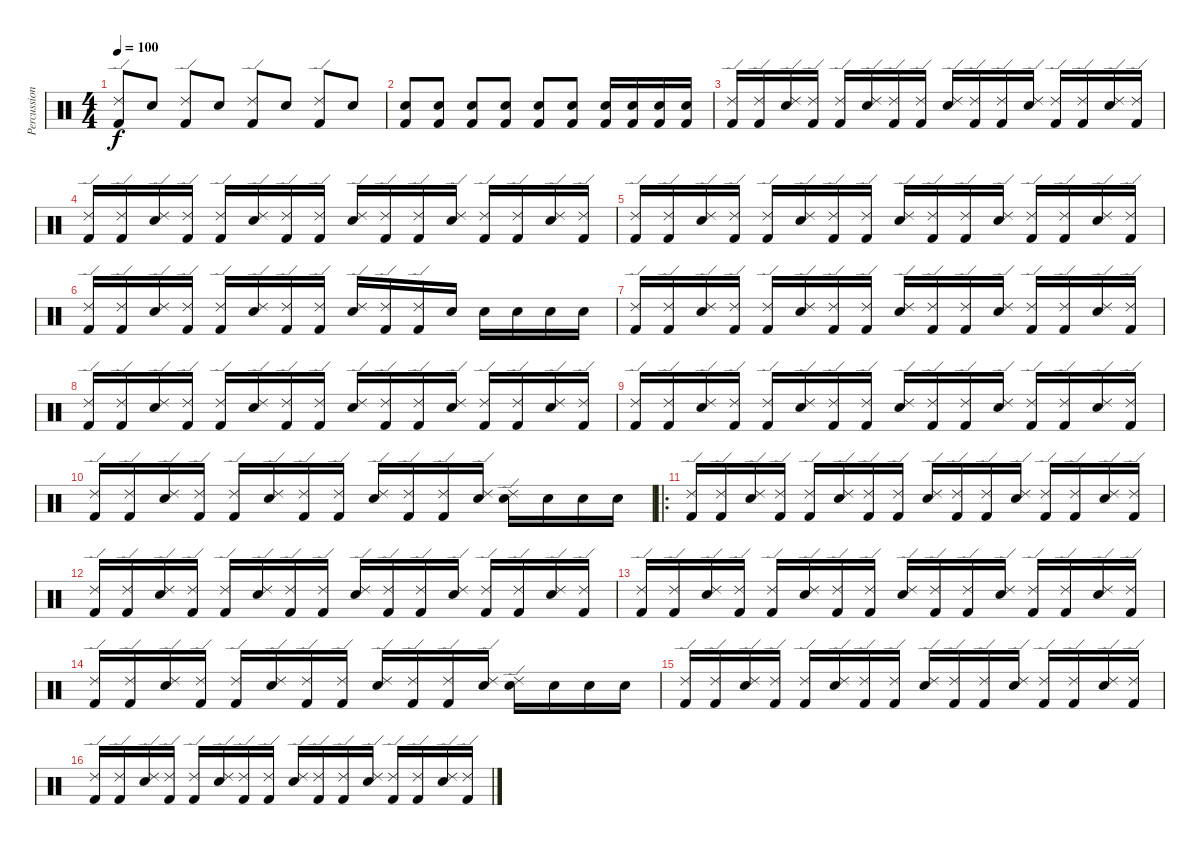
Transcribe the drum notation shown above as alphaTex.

\track ("Percussion" "Percussion") {instrument percussion}
\staff {score}
\articulation defaults
\ts (4 4)
\tempo 100
\clef neutral
\ks c
("Kick (hit) 2" "Ride (edge) 2").8{dy f} "Snare (hit) 2".8 ("Kick (hit) 2" "Ride (edge) 2").8 "Snare (hit) 2".8 ("Kick (hit) 2" "Ride (edge) 2").8 "Snare (hit) 2".8 ("Kick (hit) 2" "Ride (edge) 2").8 "Snare (hit) 2".8 |
("Kick (hit) 2" "Snare (hit) 2").8 ("Kick (hit) 2" "Snare (hit) 2").8 ("Kick (hit) 2" "Snare (hit) 2").8 ("Kick (hit) 2" "Snare (hit) 2").8 ("Kick (hit) 2" "Snare (hit) 2").8 ("Kick (hit) 2" "Snare (hit) 2").8 ("Kick (hit) 2" "Snare (hit) 2").16 ("Kick (hit) 2" "Snare (hit) 2").16 ("Kick (hit) 2" "Snare (hit) 2").16 ("Kick (hit) 2" "Snare (hit) 2").16 |
("Kick (hit) 2" "Ride (edge) 2").16 ("Kick (hit) 2" "Ride (edge) 2").16 ("Snare (hit) 2" "Ride (edge) 2").16 ("Kick (hit) 2" "Ride (edge) 2").16 ("Kick (hit) 2" "Ride (edge) 2").16 ("Snare (hit) 2" "Ride (edge) 2").16 ("Kick (hit) 2" "Ride (edge) 2").16 ("Kick (hit) 2" "Ride (edge) 2").16 ("Snare (hit) 2" "Ride (edge) 2").16 ("Kick (hit) 2" "Ride (edge) 2").16 ("Kick (hit) 2" "Ride (edge) 2").16 ("Snare (hit) 2" "Ride (edge) 2").16 ("Kick (hit) 2" "Ride (edge) 2").16 ("Kick (hit) 2" "Ride (edge) 2").16 ("Snare (hit) 2" "Ride (edge) 2").16 ("Kick (hit) 2" "Ride (edge) 2").16 |
("Kick (hit) 2" "Ride (edge) 2").16 ("Kick (hit) 2" "Ride (edge) 2").16 ("Snare (hit) 2" "Ride (edge) 2").16 ("Kick (hit) 2" "Ride (edge) 2").16 ("Kick (hit) 2" "Ride (edge) 2").16 ("Snare (hit) 2" "Ride (edge) 2").16 ("Kick (hit) 2" "Ride (edge) 2").16 ("Kick (hit) 2" "Ride (edge) 2").16 ("Snare (hit) 2" "Ride (edge) 2").16 ("Kick (hit) 2" "Ride (edge) 2").16 ("Kick (hit) 2" "Ride (edge) 2").16 ("Snare (hit) 2" "Ride (edge) 2").16 ("Kick (hit) 2" "Ride (edge) 2").16 ("Kick (hit) 2" "Ride (edge) 2").16 ("Snare (hit) 2" "Ride (edge) 2").16 ("Kick (hit) 2" "Ride (edge) 2").16 |
("Kick (hit) 2" "Ride (edge) 2").16 ("Kick (hit) 2" "Ride (edge) 2").16 ("Snare (hit) 2" "Ride (edge) 2").16 ("Kick (hit) 2" "Ride (edge) 2").16 ("Kick (hit) 2" "Ride (edge) 2").16 ("Snare (hit) 2" "Ride (edge) 2").16 ("Kick (hit) 2" "Ride (edge) 2").16 ("Kick (hit) 2" "Ride (edge) 2").16 ("Snare (hit) 2" "Ride (edge) 2").16 ("Kick (hit) 2" "Ride (edge) 2").16 ("Kick (hit) 2" "Ride (edge) 2").16 ("Snare (hit) 2" "Ride (edge) 2").16 ("Kick (hit) 2" "Ride (edge) 2").16 ("Kick (hit) 2" "Ride (edge) 2").16 ("Snare (hit) 2" "Ride (edge) 2").16 ("Kick (hit) 2" "Ride (edge) 2").16 |
("Kick (hit) 2" "Ride (edge) 2").16 ("Kick (hit) 2" "Ride (edge) 2").16 ("Snare (hit) 2" "Ride (edge) 2").16 ("Kick (hit) 2" "Ride (edge) 2").16 ("Kick (hit) 2" "Ride (edge) 2").16 ("Snare (hit) 2" "Ride (edge) 2").16 ("Kick (hit) 2" "Ride (edge) 2").16 ("Kick (hit) 2" "Ride (edge) 2").16 ("Snare (hit) 2" "Ride (edge) 2").16 ("Kick (hit) 2" "Ride (edge) 2").16 ("Kick (hit) 2" "Ride (edge) 2").16 "Snare (hit) 2".16 "Snare (hit) 2".16 "Snare (hit) 2".16 "Snare (hit) 2".16 "Snare (hit) 2".16 |
("Kick (hit) 2" "Ride (edge) 2").16 ("Kick (hit) 2" "Ride (edge) 2").16 ("Snare (hit) 2" "Ride (edge) 2").16 ("Kick (hit) 2" "Ride (edge) 2").16 ("Kick (hit) 2" "Ride (edge) 2").16 ("Snare (hit) 2" "Ride (edge) 2").16 ("Kick (hit) 2" "Ride (edge) 2").16 ("Kick (hit) 2" "Ride (edge) 2").16 ("Snare (hit) 2" "Ride (edge) 2").16 ("Kick (hit) 2" "Ride (edge) 2").16 ("Kick (hit) 2" "Ride (edge) 2").16 ("Snare (hit) 2" "Ride (edge) 2").16 ("Kick (hit) 2" "Ride (edge) 2").16 ("Kick (hit) 2" "Ride (edge) 2").16 ("Snare (hit) 2" "Ride (edge) 2").16 ("Kick (hit) 2" "Ride (edge) 2").16 |
("Kick (hit) 2" "Ride (edge) 2").16 ("Kick (hit) 2" "Ride (edge) 2").16 ("Snare (hit) 2" "Ride (edge) 2").16 ("Kick (hit) 2" "Ride (edge) 2").16 ("Kick (hit) 2" "Ride (edge) 2").16 ("Snare (hit) 2" "Ride (edge) 2").16 ("Kick (hit) 2" "Ride (edge) 2").16 ("Kick (hit) 2" "Ride (edge) 2").16 ("Snare (hit) 2" "Ride (edge) 2").16 ("Kick (hit) 2" "Ride (edge) 2").16 ("Kick (hit) 2" "Ride (edge) 2").16 ("Snare (hit) 2" "Ride (edge) 2").16 ("Kick (hit) 2" "Ride (edge) 2").16 ("Kick (hit) 2" "Ride (edge) 2").16 ("Snare (hit) 2" "Ride (edge) 2").16 ("Kick (hit) 2" "Ride (edge) 2").16 |
("Kick (hit) 2" "Ride (edge) 2").16 ("Kick (hit) 2" "Ride (edge) 2").16 ("Snare (hit) 2" "Ride (edge) 2").16 ("Kick (hit) 2" "Ride (edge) 2").16 ("Kick (hit) 2" "Ride (edge) 2").16 ("Snare (hit) 2" "Ride (edge) 2").16 ("Kick (hit) 2" "Ride (edge) 2").16 ("Kick (hit) 2" "Ride (edge) 2").16 ("Snare (hit) 2" "Ride (edge) 2").16 ("Kick (hit) 2" "Ride (edge) 2").16 ("Kick (hit) 2" "Ride (edge) 2").16 ("Snare (hit) 2" "Ride (edge) 2").16 ("Kick (hit) 2" "Ride (edge) 2").16 ("Kick (hit) 2" "Ride (edge) 2").16 ("Snare (hit) 2" "Ride (edge) 2").16 ("Kick (hit) 2" "Ride (edge) 2").16 |
("Kick (hit) 2" "Ride (edge) 2").16 ("Kick (hit) 2" "Ride (edge) 2").16 ("Snare (hit) 2" "Ride (edge) 2").16 ("Kick (hit) 2" "Ride (edge) 2").16 ("Kick (hit) 2" "Ride (edge) 2").16 ("Snare (hit) 2" "Ride (edge) 2").16 ("Kick (hit) 2" "Ride (edge) 2").16 ("Kick (hit) 2" "Ride (edge) 2").16 ("Snare (hit) 2" "Ride (edge) 2").16 ("Kick (hit) 2" "Ride (edge) 2").16 ("Kick (hit) 2" "Ride (edge) 2").16 ("Snare (hit) 2" "Ride (edge) 2").16 ("Snare (hit) 2" "Ride (edge) 2").16 "Snare (hit) 2".16 "Snare (hit) 2".16 "Snare (hit) 2".16 |
\ro
("Kick (hit) 2" "Ride (edge) 2").16 ("Kick (hit) 2" "Ride (edge) 2").16 ("Snare (hit) 2" "Ride (edge) 2").16 ("Kick (hit) 2" "Ride (edge) 2").16 ("Kick (hit) 2" "Ride (edge) 2").16 ("Snare (hit) 2" "Ride (edge) 2").16 ("Kick (hit) 2" "Ride (edge) 2").16 ("Kick (hit) 2" "Ride (edge) 2").16 ("Snare (hit) 2" "Ride (edge) 2").16 ("Kick (hit) 2" "Ride (edge) 2").16 ("Kick (hit) 2" "Ride (edge) 2").16 ("Snare (hit) 2" "Ride (edge) 2").16 ("Kick (hit) 2" "Ride (edge) 2").16 ("Kick (hit) 2" "Ride (edge) 2").16 ("Snare (hit) 2" "Ride (edge) 2").16 ("Kick (hit) 2" "Ride (edge) 2").16 |
("Kick (hit) 2" "Ride (edge) 2").16 ("Kick (hit) 2" "Ride (edge) 2").16 ("Snare (hit) 2" "Ride (edge) 2").16 ("Kick (hit) 2" "Ride (edge) 2").16 ("Kick (hit) 2" "Ride (edge) 2").16 ("Snare (hit) 2" "Ride (edge) 2").16 ("Kick (hit) 2" "Ride (edge) 2").16 ("Kick (hit) 2" "Ride (edge) 2").16 ("Snare (hit) 2" "Ride (edge) 2").16 ("Kick (hit) 2" "Ride (edge) 2").16 ("Kick (hit) 2" "Ride (edge) 2").16 ("Snare (hit) 2" "Ride (edge) 2").16 ("Kick (hit) 2" "Ride (edge) 2").16 ("Kick (hit) 2" "Ride (edge) 2").16 ("Snare (hit) 2" "Ride (edge) 2").16 ("Kick (hit) 2" "Ride (edge) 2").16 |
("Kick (hit) 2" "Ride (edge) 2").16 ("Kick (hit) 2" "Ride (edge) 2").16 ("Snare (hit) 2" "Ride (edge) 2").16 ("Kick (hit) 2" "Ride (edge) 2").16 ("Kick (hit) 2" "Ride (edge) 2").16 ("Snare (hit) 2" "Ride (edge) 2").16 ("Kick (hit) 2" "Ride (edge) 2").16 ("Kick (hit) 2" "Ride (edge) 2").16 ("Snare (hit) 2" "Ride (edge) 2").16 ("Kick (hit) 2" "Ride (edge) 2").16 ("Kick (hit) 2" "Ride (edge) 2").16 ("Snare (hit) 2" "Ride (edge) 2").16 ("Kick (hit) 2" "Ride (edge) 2").16 ("Kick (hit) 2" "Ride (edge) 2").16 ("Snare (hit) 2" "Ride (edge) 2").16 ("Kick (hit) 2" "Ride (edge) 2").16 |
("Kick (hit) 2" "Ride (edge) 2").16 ("Kick (hit) 2" "Ride (edge) 2").16 ("Snare (hit) 2" "Ride (edge) 2").16 ("Kick (hit) 2" "Ride (edge) 2").16 ("Kick (hit) 2" "Ride (edge) 2").16 ("Snare (hit) 2" "Ride (edge) 2").16 ("Kick (hit) 2" "Ride (edge) 2").16 ("Kick (hit) 2" "Ride (edge) 2").16 ("Snare (hit) 2" "Ride (edge) 2").16 ("Kick (hit) 2" "Ride (edge) 2").16 ("Kick (hit) 2" "Ride (edge) 2").16 ("Snare (hit) 2" "Ride (edge) 2").16 ("Snare (hit) 2" "Ride (edge) 2").16 "Snare (hit) 2".16 "Snare (hit) 2".16 "Snare (hit) 2".16 |
("Kick (hit) 2" "Ride (edge) 2").16 ("Kick (hit) 2" "Ride (edge) 2").16 ("Snare (hit) 2" "Ride (edge) 2").16 ("Kick (hit) 2" "Ride (edge) 2").16 ("Kick (hit) 2" "Ride (edge) 2").16 ("Snare (hit) 2" "Ride (edge) 2").16 ("Kick (hit) 2" "Ride (edge) 2").16 ("Kick (hit) 2" "Ride (edge) 2").16 ("Snare (hit) 2" "Ride (edge) 2").16 ("Kick (hit) 2" "Ride (edge) 2").16 ("Kick (hit) 2" "Ride (edge) 2").16 ("Snare (hit) 2" "Ride (edge) 2").16 ("Kick (hit) 2" "Ride (edge) 2").16 ("Kick (hit) 2" "Ride (edge) 2").16 ("Snare (hit) 2" "Ride (edge) 2").16 ("Kick (hit) 2" "Ride (edge) 2").16 |
("Kick (hit) 2" "Ride (edge) 2").16 ("Kick (hit) 2" "Ride (edge) 2").16 ("Snare (hit) 2" "Ride (edge) 2").16 ("Kick (hit) 2" "Ride (edge) 2").16 ("Kick (hit) 2" "Ride (edge) 2").16 ("Snare (hit) 2" "Ride (edge) 2").16 ("Kick (hit) 2" "Ride (edge) 2").16 ("Kick (hit) 2" "Ride (edge) 2").16 ("Snare (hit) 2" "Ride (edge) 2").16 ("Kick (hit) 2" "Ride (edge) 2").16 ("Kick (hit) 2" "Ride (edge) 2").16 ("Snare (hit) 2" "Ride (edge) 2").16 ("Kick (hit) 2" "Ride (edge) 2").16 ("Kick (hit) 2" "Ride (edge) 2").16 ("Snare (hit) 2" "Ride (edge) 2").16 ("Kick (hit) 2" "Ride (edge) 2").16
